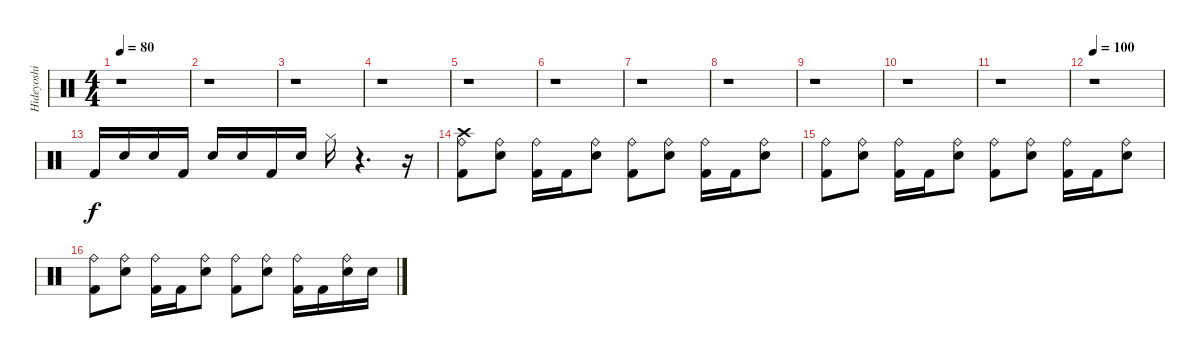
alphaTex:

\track ("Hideyoshi" "Hideyoshi") {instrument percussion}
\staff {score}
\articulation defaults
\ts (4 4)
\tempo 80
\clef neutral
\ks c
r.1{dy f} |
r.1 |
r.1 |
r.1 |
r.1 |
r.1 |
r.1 |
r.1 |
r.1 |
r.1 |
r.1 |
\tempo 100
r.1 |
"Kick (hit) 2".16 "Snare (hit) 2".16 "Snare (hit) 2".16 "Kick (hit) 2".16 "Snare (hit) 2".16 "Snare (hit) 2".16 "Kick (hit) 2".16 "Snare (hit) 2".16 "Hi-Hat (closed)".16 r.4{d} r.16 |
("Crash high (hit)" "Kick (hit) 2" "Ride (bell)").8 ("Snare (hit) 2" "Ride (bell)").8 ("Kick (hit) 2" "Ride (bell)").16 "Kick (hit) 2".16 ("Snare (hit) 2" "Ride (bell)").8 ("Kick (hit) 2" "Ride (bell)").8 ("Snare (hit) 2" "Ride (bell)").8 ("Kick (hit) 2" "Ride (bell)").16 "Kick (hit) 2".16 ("Snare (hit) 2" "Ride (bell)").8 |
("Kick (hit) 2" "Ride (bell)").8 ("Snare (hit) 2" "Ride (bell)").8 ("Kick (hit) 2" "Ride (bell)").16 "Kick (hit) 2".16 ("Snare (hit) 2" "Ride (bell)").8 ("Kick (hit) 2" "Ride (bell)").8 ("Snare (hit) 2" "Ride (bell)").8 ("Kick (hit) 2" "Ride (bell)").16 "Kick (hit) 2".16 ("Snare (hit) 2" "Ride (bell)").8 |
("Kick (hit) 2" "Ride (bell)").8 ("Snare (hit) 2" "Ride (bell)").8 ("Kick (hit) 2" "Ride (bell)").16 "Kick (hit) 2".16 ("Snare (hit) 2" "Ride (bell)").8 ("Kick (hit) 2" "Ride (bell)").8 ("Snare (hit) 2" "Ride (bell)").8 ("Kick (hit) 2" "Ride (bell)").16 "Kick (hit) 2".16 ("Snare (hit) 2" "Ride (bell)").16 "Snare (hit) 2".16
